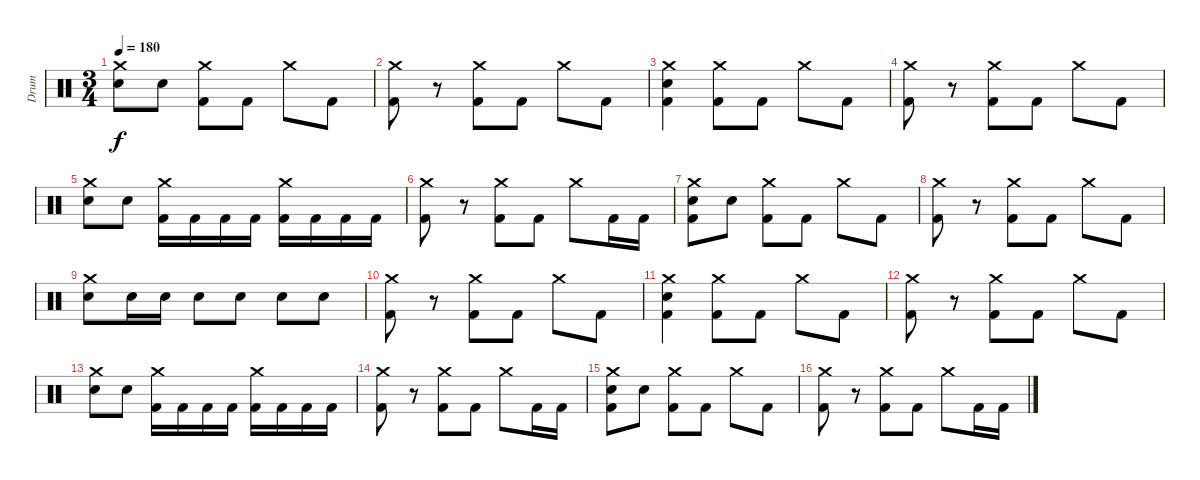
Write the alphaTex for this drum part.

\track ("Drum" "Drum") {instrument percussion}
\staff {score}
\articulation defaults
\ts (3 4)
\tempo 180
\clef neutral
\ks c
("Crash medium (hit)" "Snare (hit) 2").8{dy f} "Snare (hit) 2".8 ("Crash medium (hit)" "Kick (hit) 2").8 "Kick (hit) 2".8 "Crash medium (hit)".8 "Kick (hit) 2".8 |
("Crash medium (hit)" "Kick (hit) 2").8 r.8 ("Crash medium (hit)" "Kick (hit) 2").8 "Kick (hit) 2".8 "Crash medium (hit)".8 "Kick (hit) 2".8 |
("Crash medium (hit)" "Snare (hit) 2" "Kick (hit) 2").4 ("Crash medium (hit)" "Kick (hit) 2").8 "Kick (hit) 2".8 "Crash medium (hit)".8 "Kick (hit) 2".8 |
("Crash medium (hit)" "Kick (hit) 2").8 r.8 ("Crash medium (hit)" "Kick (hit) 2").8 "Kick (hit) 2".8 "Crash medium (hit)".8 "Kick (hit) 2".8 |
("Crash medium (hit)" "Snare (hit) 2").8 "Snare (hit) 2".8 ("Crash medium (hit)" "Kick (hit) 2").16 "Kick (hit) 2".16 "Kick (hit) 2".16 "Kick (hit) 2".16 ("Crash medium (hit)" "Kick (hit) 2").16 "Kick (hit) 2".16 "Kick (hit) 2".16 "Kick (hit) 2".16 |
("Crash medium (hit)" "Kick (hit) 2").8 r.8 ("Crash medium (hit)" "Kick (hit) 2").8 "Kick (hit) 2".8 "Crash medium (hit)".8 "Kick (hit) 2".16 "Kick (hit) 2".16 |
("Crash medium (hit)" "Snare (hit) 2" "Kick (hit) 2").8 "Snare (hit) 2".8 ("Crash medium (hit)" "Kick (hit) 2").8 "Kick (hit) 2".8 "Crash medium (hit)".8 "Kick (hit) 2".8 |
("Crash medium (hit)" "Kick (hit) 2").8 r.8 ("Crash medium (hit)" "Kick (hit) 2").8 "Kick (hit) 2".8 "Crash medium (hit)".8 "Kick (hit) 2".8 |
("Crash medium (hit)" "Snare (hit) 2").8 "Snare (hit) 2".16 "Snare (hit) 2".16 "Snare (hit) 2".8 "Snare (hit) 2".8 "Snare (hit) 2".8 "Snare (hit) 2".8 |
("Crash medium (hit)" "Kick (hit) 2").8 r.8 ("Crash medium (hit)" "Kick (hit) 2").8 "Kick (hit) 2".8 "Crash medium (hit)".8 "Kick (hit) 2".8 |
("Crash medium (hit)" "Snare (hit) 2" "Kick (hit) 2").4 ("Crash medium (hit)" "Kick (hit) 2").8 "Kick (hit) 2".8 "Crash medium (hit)".8 "Kick (hit) 2".8 |
("Crash medium (hit)" "Kick (hit) 2").8 r.8 ("Crash medium (hit)" "Kick (hit) 2").8 "Kick (hit) 2".8 "Crash medium (hit)".8 "Kick (hit) 2".8 |
("Crash medium (hit)" "Snare (hit) 2").8 "Snare (hit) 2".8 ("Crash medium (hit)" "Kick (hit) 2").16 "Kick (hit) 2".16 "Kick (hit) 2".16 "Kick (hit) 2".16 ("Crash medium (hit)" "Kick (hit) 2").16 "Kick (hit) 2".16 "Kick (hit) 2".16 "Kick (hit) 2".16 |
("Crash medium (hit)" "Kick (hit) 2").8 r.8 ("Crash medium (hit)" "Kick (hit) 2").8 "Kick (hit) 2".8 "Crash medium (hit)".8 "Kick (hit) 2".16 "Kick (hit) 2".16 |
("Crash medium (hit)" "Snare (hit) 2" "Kick (hit) 2").8 "Snare (hit) 2".8 ("Crash medium (hit)" "Kick (hit) 2").8 "Kick (hit) 2".8 "Crash medium (hit)".8 "Kick (hit) 2".8 |
("Crash medium (hit)" "Kick (hit) 2").8 r.8 ("Crash medium (hit)" "Kick (hit) 2").8 "Kick (hit) 2".8 "Crash medium (hit)".8 "Kick (hit) 2".16 "Kick (hit) 2".16
